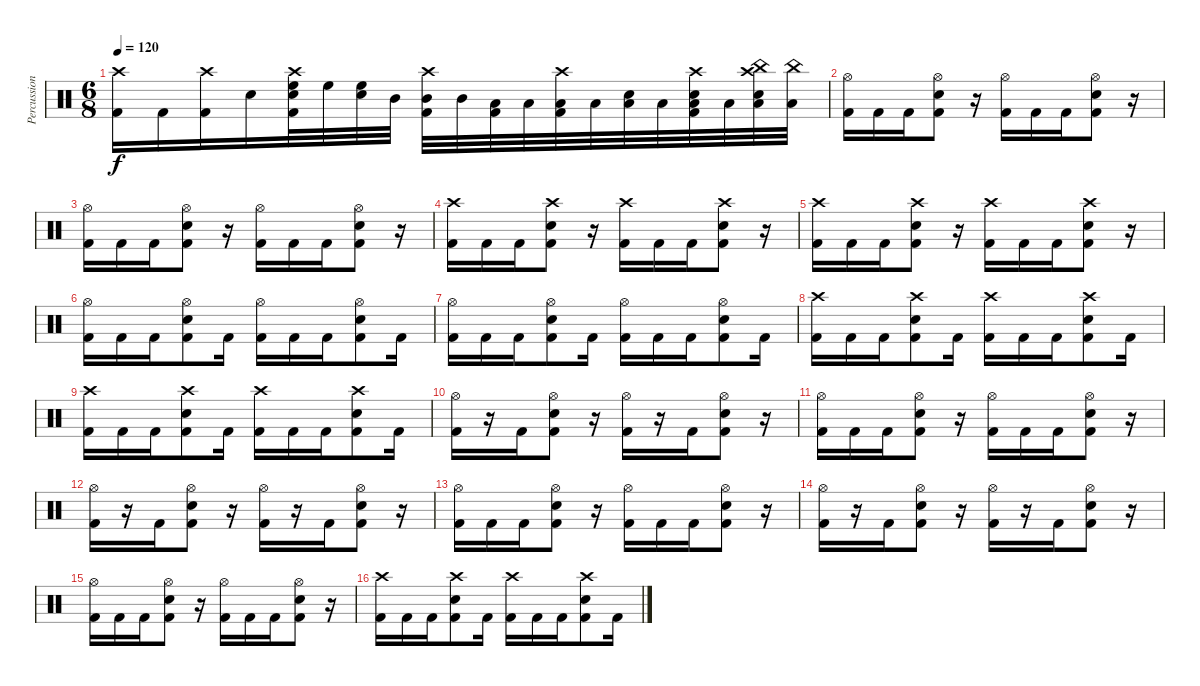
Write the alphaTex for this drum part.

\track ("Percussion" "Percussion") {instrument percussion}
\staff {score}
\articulation defaults
\ts (6 8)
\tempo 120
\clef neutral
\ks c
("Crash high (hit)" "Kick (hit) 2").16{dy f} "Kick (hit) 2".16 ("Crash high (hit)" "Kick (hit) 2").16 "Snare (hit) 2".16 ("Crash high (hit)" "High Floor Tom (hit)" "Snare (hit) 2" "Kick (hit) 2").32 "High Floor Tom (hit)".32 ("High Floor Tom (hit)" "Snare (hit) 2").32 "Mid Tom (hit)".32 ("Crash high (hit)" "Mid Tom (hit)" "Kick (hit) 2").32 "Mid Tom (hit)".32 ("Low Tom (hit)" "Kick (hit) 2").32 "Low Tom (hit)".32 ("Crash high (hit)" "Low Tom (hit)" "Kick (hit) 2").32 "Low Floor Tom (hit)".32 ("Low Floor Tom (hit)" "Snare (hit) 2").32 "Low Floor Tom (hit)".32 ("Crash high (hit)" "Low Floor Tom (hit)" "Snare (hit) 2" "Kick (hit) 2").32 "Low Floor Tom (hit)".32 ("China (hit)" "Low Floor Tom (hit)" "Crash high (hit)" "Snare (hit) 2").32 ("Low Floor Tom (hit)" "China (hit)").32 |
("Hi-Hat (open)" "Kick (hit) 2").16 "Kick (hit) 2".16 "Kick (hit) 2".16 ("Hi-Hat (open)" "Snare (hit) 2" "Kick (hit) 2").8 r.16 ("Hi-Hat (open)" "Kick (hit) 2").16 "Kick (hit) 2".16 "Kick (hit) 2".16 ("Hi-Hat (open)" "Snare (hit) 2" "Kick (hit) 2").8 r.16 |
("Hi-Hat (open)" "Kick (hit) 2").16 "Kick (hit) 2".16 "Kick (hit) 2".16 ("Hi-Hat (open)" "Snare (hit) 2" "Kick (hit) 2").8 r.16 ("Hi-Hat (open)" "Kick (hit) 2").16 "Kick (hit) 2".16 "Kick (hit) 2".16 ("Hi-Hat (open)" "Snare (hit) 2" "Kick (hit) 2").8 r.16 |
("Crash high (hit)" "Kick (hit) 2").16 "Kick (hit) 2".16 "Kick (hit) 2".16 ("Crash high (hit)" "Snare (hit) 2" "Kick (hit) 2").8 r.16 ("Crash high (hit)" "Kick (hit) 2").16 "Kick (hit) 2".16 "Kick (hit) 2".16 ("Crash high (hit)" "Snare (hit) 2" "Kick (hit) 2").8 r.16 |
("Crash high (hit)" "Kick (hit) 2").16 "Kick (hit) 2".16 "Kick (hit) 2".16 ("Crash high (hit)" "Snare (hit) 2" "Kick (hit) 2").8 r.16 ("Crash high (hit)" "Kick (hit) 2").16 "Kick (hit) 2".16 "Kick (hit) 2".16 ("Crash high (hit)" "Snare (hit) 2" "Kick (hit) 2").8 r.16 |
("Hi-Hat (open)" "Kick (hit) 2").16 "Kick (hit) 2".16 "Kick (hit) 2".16 ("Hi-Hat (open)" "Snare (hit) 2" "Kick (hit) 2").8 "Kick (hit) 2".16 ("Hi-Hat (open)" "Kick (hit) 2").16 "Kick (hit) 2".16 "Kick (hit) 2".16 ("Hi-Hat (open)" "Snare (hit) 2" "Kick (hit) 2").8 "Kick (hit) 2".16 |
("Hi-Hat (open)" "Kick (hit) 2").16 "Kick (hit) 2".16 "Kick (hit) 2".16 ("Hi-Hat (open)" "Snare (hit) 2" "Kick (hit) 2").8 "Kick (hit) 2".16 ("Hi-Hat (open)" "Kick (hit) 2").16 "Kick (hit) 2".16 "Kick (hit) 2".16 ("Hi-Hat (open)" "Snare (hit) 2" "Kick (hit) 2").8 "Kick (hit) 2".16 |
("Crash high (hit)" "Kick (hit) 2").16 "Kick (hit) 2".16 "Kick (hit) 2".16 ("Crash high (hit)" "Snare (hit) 2" "Kick (hit) 2").8 "Kick (hit) 2".16 ("Crash high (hit)" "Kick (hit) 2").16 "Kick (hit) 2".16 "Kick (hit) 2".16 ("Crash high (hit)" "Snare (hit) 2" "Kick (hit) 2").8 "Kick (hit) 2".16 |
("Crash high (hit)" "Kick (hit) 2").16 "Kick (hit) 2".16 "Kick (hit) 2".16 ("Crash high (hit)" "Snare (hit) 2" "Kick (hit) 2").8 "Kick (hit) 2".16 ("Crash high (hit)" "Kick (hit) 2").16 "Kick (hit) 2".16 "Kick (hit) 2".16 ("Crash high (hit)" "Snare (hit) 2" "Kick (hit) 2").8 "Kick (hit) 2".16 |
("Hi-Hat (open)" "Kick (hit) 2").16 r.16 "Kick (hit) 2".16 ("Hi-Hat (open)" "Snare (hit) 2" "Kick (hit) 2").8 r.16 ("Hi-Hat (open)" "Kick (hit) 2").16 r.16 "Kick (hit) 2".16 ("Hi-Hat (open)" "Snare (hit) 2" "Kick (hit) 2").8 r.16 |
("Hi-Hat (open)" "Kick (hit) 2").16 "Kick (hit) 2".16 "Kick (hit) 2".16 ("Hi-Hat (open)" "Snare (hit) 2" "Kick (hit) 2").8 r.16 ("Hi-Hat (open)" "Kick (hit) 2").16 "Kick (hit) 2".16 "Kick (hit) 2".16 ("Hi-Hat (open)" "Snare (hit) 2" "Kick (hit) 2").8 r.16 |
("Hi-Hat (open)" "Kick (hit) 2").16 r.16 "Kick (hit) 2".16 ("Hi-Hat (open)" "Snare (hit) 2" "Kick (hit) 2").8 r.16 ("Hi-Hat (open)" "Kick (hit) 2").16 r.16 "Kick (hit) 2".16 ("Hi-Hat (open)" "Snare (hit) 2" "Kick (hit) 2").8 r.16 |
("Hi-Hat (open)" "Kick (hit) 2").16 "Kick (hit) 2".16 "Kick (hit) 2".16 ("Hi-Hat (open)" "Snare (hit) 2" "Kick (hit) 2").8 r.16 ("Hi-Hat (open)" "Kick (hit) 2").16 "Kick (hit) 2".16 "Kick (hit) 2".16 ("Hi-Hat (open)" "Snare (hit) 2" "Kick (hit) 2").8 r.16 |
("Hi-Hat (open)" "Kick (hit) 2").16 r.16 "Kick (hit) 2".16 ("Hi-Hat (open)" "Snare (hit) 2" "Kick (hit) 2").8 r.16 ("Hi-Hat (open)" "Kick (hit) 2").16 r.16 "Kick (hit) 2".16 ("Hi-Hat (open)" "Snare (hit) 2" "Kick (hit) 2").8 r.16 |
("Hi-Hat (open)" "Kick (hit) 2").16 "Kick (hit) 2".16 "Kick (hit) 2".16 ("Hi-Hat (open)" "Snare (hit) 2" "Kick (hit) 2").8 r.16 ("Hi-Hat (open)" "Kick (hit) 2").16 "Kick (hit) 2".16 "Kick (hit) 2".16 ("Hi-Hat (open)" "Snare (hit) 2" "Kick (hit) 2").8 r.16 |
("Crash high (hit)" "Kick (hit) 2").16 "Kick (hit) 2".16 "Kick (hit) 2".16 ("Crash high (hit)" "Snare (hit) 2" "Kick (hit) 2").8 "Kick (hit) 2".16 ("Crash high (hit)" "Kick (hit) 2").16 "Kick (hit) 2".16 "Kick (hit) 2".16 ("Crash high (hit)" "Snare (hit) 2" "Kick (hit) 2").8 "Kick (hit) 2".16
